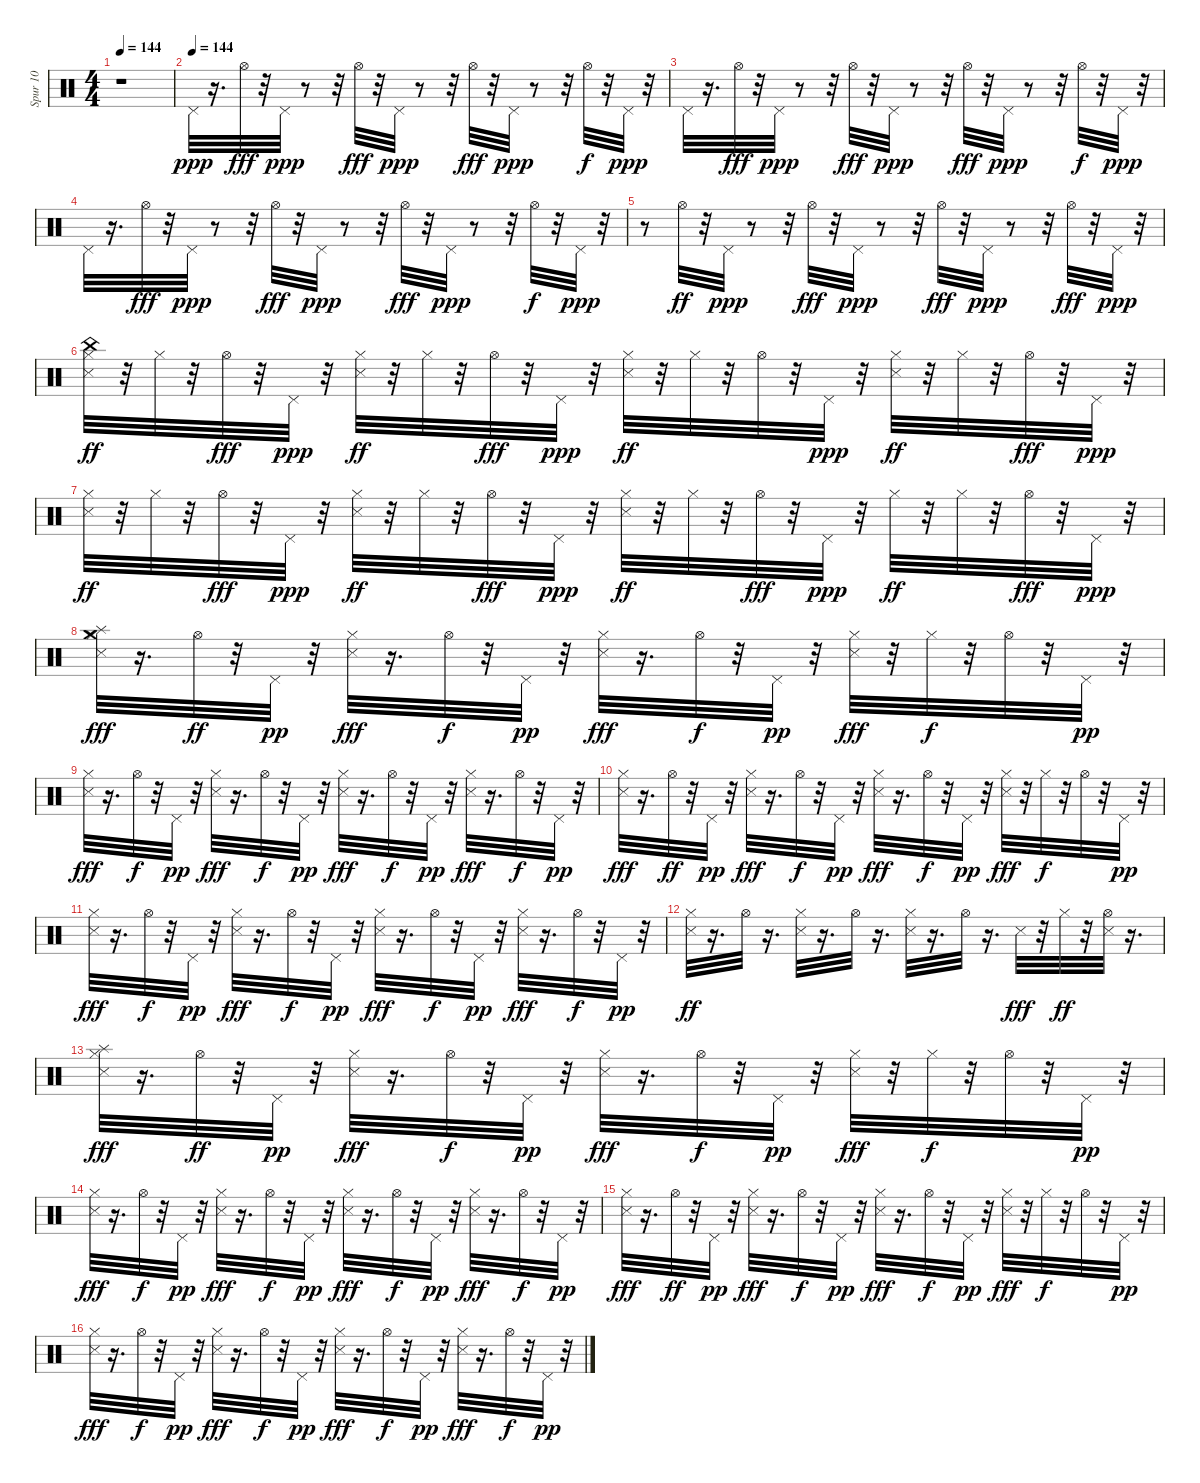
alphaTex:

\track ("Spur 10" "Spur 10") {instrument percussion}
\staff {score}
\articulation defaults
\ts (4 4)
\tempo 144
\clef neutral
\ks c
r.1{dy ppp} |
\tempo (144)
"Pedal Hi-Hat (hit)".32 r.16{d} "Hi-Hat (open)".32{dy fff} r.32 "Pedal Hi-Hat (hit)".32{dy ppp} r.8 r.32 "Hi-Hat (open)".32{dy fff} r.32 "Pedal Hi-Hat (hit)".32{dy ppp} r.8 r.32 "Hi-Hat (open)".32{dy fff} r.32 "Pedal Hi-Hat (hit)".32{dy ppp} r.8 r.32 "Hi-Hat (open)".32{dy f} r.32 "Pedal Hi-Hat (hit)".32{dy ppp} r.32 |
"Pedal Hi-Hat (hit)".32 r.16{d} "Hi-Hat (open)".32{dy fff} r.32 "Pedal Hi-Hat (hit)".32{dy ppp} r.8 r.32 "Hi-Hat (open)".32{dy fff} r.32 "Pedal Hi-Hat (hit)".32{dy ppp} r.8 r.32 "Hi-Hat (open)".32{dy fff} r.32 "Pedal Hi-Hat (hit)".32{dy ppp} r.8 r.32 "Hi-Hat (open)".32{dy f} r.32 "Pedal Hi-Hat (hit)".32{dy ppp} r.32 |
"Pedal Hi-Hat (hit)".32 r.16{d} "Hi-Hat (open)".32{dy fff} r.32 "Pedal Hi-Hat (hit)".32{dy ppp} r.8 r.32 "Hi-Hat (open)".32{dy fff} r.32 "Pedal Hi-Hat (hit)".32{dy ppp} r.8 r.32 "Hi-Hat (open)".32{dy fff} r.32 "Pedal Hi-Hat (hit)".32{dy ppp} r.8 r.32 "Hi-Hat (open)".32{dy f} r.32 "Pedal Hi-Hat (hit)".32{dy ppp} r.32 |
r.8 "Hi-Hat (open)".32{dy ff} r.32 "Pedal Hi-Hat (hit)".32{dy ppp} r.8 r.32 "Hi-Hat (open)".32{dy fff} r.32 "Pedal Hi-Hat (hit)".32{dy ppp} r.8 r.32 "Hi-Hat (open)".32{dy fff} r.32 "Pedal Hi-Hat (hit)".32{dy ppp} r.8 r.32 "Hi-Hat (open)".32{dy fff} r.32 "Pedal Hi-Hat (hit)".32{dy ppp} r.32 |
("Metronome (hit)" "Hi-Hat (closed)" "China (hit)").32{dy ff} r.32 "Hi-Hat (closed)".32 r.32 "Hi-Hat (open)".32{dy fff} r.32 "Pedal Hi-Hat (hit)".32{dy ppp} r.32 ("Metronome (hit)" "Hi-Hat (closed)").32{dy ff} r.32 "Hi-Hat (closed)".32 r.32 "Hi-Hat (open)".32{dy fff} r.32 "Pedal Hi-Hat (hit)".32{dy ppp} r.32 ("Metronome (hit)" "Hi-Hat (closed)").32{dy ff} r.32 "Hi-Hat (closed)".32 r.32 "Hi-Hat (open)".32 r.32 "Pedal Hi-Hat (hit)".32{dy ppp} r.32 ("Metronome (hit)" "Hi-Hat (closed)").32{dy ff} r.32 "Hi-Hat (closed)".32 r.32 "Hi-Hat (open)".32{dy fff} r.32 "Pedal Hi-Hat (hit)".32{dy ppp} r.32 |
("Metronome (hit)" "Hi-Hat (closed)").32{dy ff} r.32 "Hi-Hat (closed)".32 r.32 "Hi-Hat (open)".32{dy fff} r.32 "Pedal Hi-Hat (hit)".32{dy ppp} r.32 ("Metronome (hit)" "Hi-Hat (closed)").32{dy ff} r.32 "Hi-Hat (closed)".32 r.32 "Hi-Hat (open)".32{dy fff} r.32 "Pedal Hi-Hat (hit)".32{dy ppp} r.32 ("Metronome (hit)" "Hi-Hat (closed)").32{dy ff} r.32 "Hi-Hat (closed)".32 r.32 "Hi-Hat (open)".32{dy fff} r.32 "Pedal Hi-Hat (hit)".32{dy ppp} r.32 "Hi-Hat (closed)".32{dy ff} r.32 "Hi-Hat (closed)".32 r.32 "Hi-Hat (open)".32{dy fff} r.32 "Pedal Hi-Hat (hit)".32{dy ppp} r.32 |
("Splash (hit)" "Crash medium (hit)" "Metronome (hit)" "Hi-Hat (closed)").32{dy fff} r.16{d} "Hi-Hat (open)".32{dy ff} r.32 "Pedal Hi-Hat (hit)".32{dy pp} r.32 ("Metronome (hit)" "Hi-Hat (closed)").32{dy fff} r.16{d} "Hi-Hat (open)".32{dy f} r.32 "Pedal Hi-Hat (hit)".32{dy pp} r.32 ("Metronome (hit)" "Hi-Hat (closed)").32{dy fff} r.16{d} "Hi-Hat (open)".32{dy f} r.32 "Pedal Hi-Hat (hit)".32{dy pp} r.32 ("Metronome (hit)" "Hi-Hat (closed)").32{dy fff} r.32 "Hi-Hat (closed)".32{dy f} r.32 "Hi-Hat (open)".32 r.32 "Pedal Hi-Hat (hit)".32{dy pp} r.32 |
("Metronome (hit)" "Hi-Hat (closed)").32{dy fff} r.16{d} "Hi-Hat (open)".32{dy f} r.32 "Pedal Hi-Hat (hit)".32{dy pp} r.32 ("Metronome (hit)" "Hi-Hat (closed)").32{dy fff} r.16{d} "Hi-Hat (open)".32{dy f} r.32 "Pedal Hi-Hat (hit)".32{dy pp} r.32 ("Metronome (hit)" "Hi-Hat (closed)").32{dy fff} r.16{d} "Hi-Hat (open)".32{dy f} r.32 "Pedal Hi-Hat (hit)".32{dy pp} r.32 ("Metronome (hit)" "Hi-Hat (closed)").32{dy fff} r.16{d} "Hi-Hat (open)".32{dy f} r.32 "Pedal Hi-Hat (hit)".32{dy pp} r.32 |
("Metronome (hit)" "Hi-Hat (closed)").32{dy fff} r.16{d} "Hi-Hat (open)".32{dy ff} r.32 "Pedal Hi-Hat (hit)".32{dy pp} r.32 ("Metronome (hit)" "Hi-Hat (closed)").32{dy fff} r.16{d} "Hi-Hat (open)".32{dy f} r.32 "Pedal Hi-Hat (hit)".32{dy pp} r.32 ("Metronome (hit)" "Hi-Hat (closed)").32{dy fff} r.16{d} "Hi-Hat (open)".32{dy f} r.32 "Pedal Hi-Hat (hit)".32{dy pp} r.32 ("Metronome (hit)" "Hi-Hat (closed)").32{dy fff} r.32 "Hi-Hat (closed)".32{dy f} r.32 "Hi-Hat (open)".32 r.32 "Pedal Hi-Hat (hit)".32{dy pp} r.32 |
("Metronome (hit)" "Hi-Hat (closed)").32{dy fff} r.16{d} "Hi-Hat (open)".32{dy f} r.32 "Pedal Hi-Hat (hit)".32{dy pp} r.32 ("Metronome (hit)" "Hi-Hat (closed)").32{dy fff} r.16{d} "Hi-Hat (open)".32{dy f} r.32 "Pedal Hi-Hat (hit)".32{dy pp} r.32 ("Metronome (hit)" "Hi-Hat (closed)").32{dy fff} r.16{d} "Hi-Hat (open)".32{dy f} r.32 "Pedal Hi-Hat (hit)".32{dy pp} r.32 ("Metronome (hit)" "Hi-Hat (closed)").32{dy fff} r.16{d} "Hi-Hat (open)".32{dy f} r.32 "Pedal Hi-Hat (hit)".32{dy pp} r.32 |
("Metronome (hit)" "Hi-Hat (closed)").32{dy ff} r.16{d} "Hi-Hat (open)".32 r.16{d} ("Metronome (hit)" "Hi-Hat (closed)").32 r.16{d} "Hi-Hat (open)".32 r.16{d} ("Metronome (hit)" "Hi-Hat (closed)").32 r.16{d} "Hi-Hat (open)".32 r.16{d} "Metronome (hit)".32{dy fff} r.32 "Hi-Hat (closed)".32{dy ff} r.32 ("Metronome (hit)" "Hi-Hat (open)").32 r.16{d} |
("Splash (hit)" "Metronome (hit)" "Hi-Hat (closed)").32{dy fff} r.16{d} "Hi-Hat (open)".32{dy ff} r.32 "Pedal Hi-Hat (hit)".32{dy pp} r.32 ("Metronome (hit)" "Hi-Hat (closed)").32{dy fff} r.16{d} "Hi-Hat (open)".32{dy f} r.32 "Pedal Hi-Hat (hit)".32{dy pp} r.32 ("Metronome (hit)" "Hi-Hat (closed)").32{dy fff} r.16{d} "Hi-Hat (open)".32{dy f} r.32 "Pedal Hi-Hat (hit)".32{dy pp} r.32 ("Metronome (hit)" "Hi-Hat (closed)").32{dy fff} r.32 "Hi-Hat (closed)".32{dy f} r.32 "Hi-Hat (open)".32 r.32 "Pedal Hi-Hat (hit)".32{dy pp} r.32 |
("Metronome (hit)" "Hi-Hat (closed)").32{dy fff} r.16{d} "Hi-Hat (open)".32{dy f} r.32 "Pedal Hi-Hat (hit)".32{dy pp} r.32 ("Metronome (hit)" "Hi-Hat (closed)").32{dy fff} r.16{d} "Hi-Hat (open)".32{dy f} r.32 "Pedal Hi-Hat (hit)".32{dy pp} r.32 ("Metronome (hit)" "Hi-Hat (closed)").32{dy fff} r.16{d} "Hi-Hat (open)".32{dy f} r.32 "Pedal Hi-Hat (hit)".32{dy pp} r.32 ("Metronome (hit)" "Hi-Hat (closed)").32{dy fff} r.16{d} "Hi-Hat (open)".32{dy f} r.32 "Pedal Hi-Hat (hit)".32{dy pp} r.32 |
("Metronome (hit)" "Hi-Hat (closed)").32{dy fff} r.16{d} "Hi-Hat (open)".32{dy ff} r.32 "Pedal Hi-Hat (hit)".32{dy pp} r.32 ("Metronome (hit)" "Hi-Hat (closed)").32{dy fff} r.16{d} "Hi-Hat (open)".32{dy f} r.32 "Pedal Hi-Hat (hit)".32{dy pp} r.32 ("Metronome (hit)" "Hi-Hat (closed)").32{dy fff} r.16{d} "Hi-Hat (open)".32{dy f} r.32 "Pedal Hi-Hat (hit)".32{dy pp} r.32 ("Metronome (hit)" "Hi-Hat (closed)").32{dy fff} r.32 "Hi-Hat (closed)".32{dy f} r.32 "Hi-Hat (open)".32 r.32 "Pedal Hi-Hat (hit)".32{dy pp} r.32 |
("Metronome (hit)" "Hi-Hat (closed)").32{dy fff} r.16{d} "Hi-Hat (open)".32{dy f} r.32 "Pedal Hi-Hat (hit)".32{dy pp} r.32 ("Metronome (hit)" "Hi-Hat (closed)").32{dy fff} r.16{d} "Hi-Hat (open)".32{dy f} r.32 "Pedal Hi-Hat (hit)".32{dy pp} r.32 ("Metronome (hit)" "Hi-Hat (closed)").32{dy fff} r.16{d} "Hi-Hat (open)".32{dy f} r.32 "Pedal Hi-Hat (hit)".32{dy pp} r.32 ("Metronome (hit)" "Hi-Hat (closed)").32{dy fff} r.16{d} "Hi-Hat (open)".32{dy f} r.32 "Pedal Hi-Hat (hit)".32{dy pp} r.32
